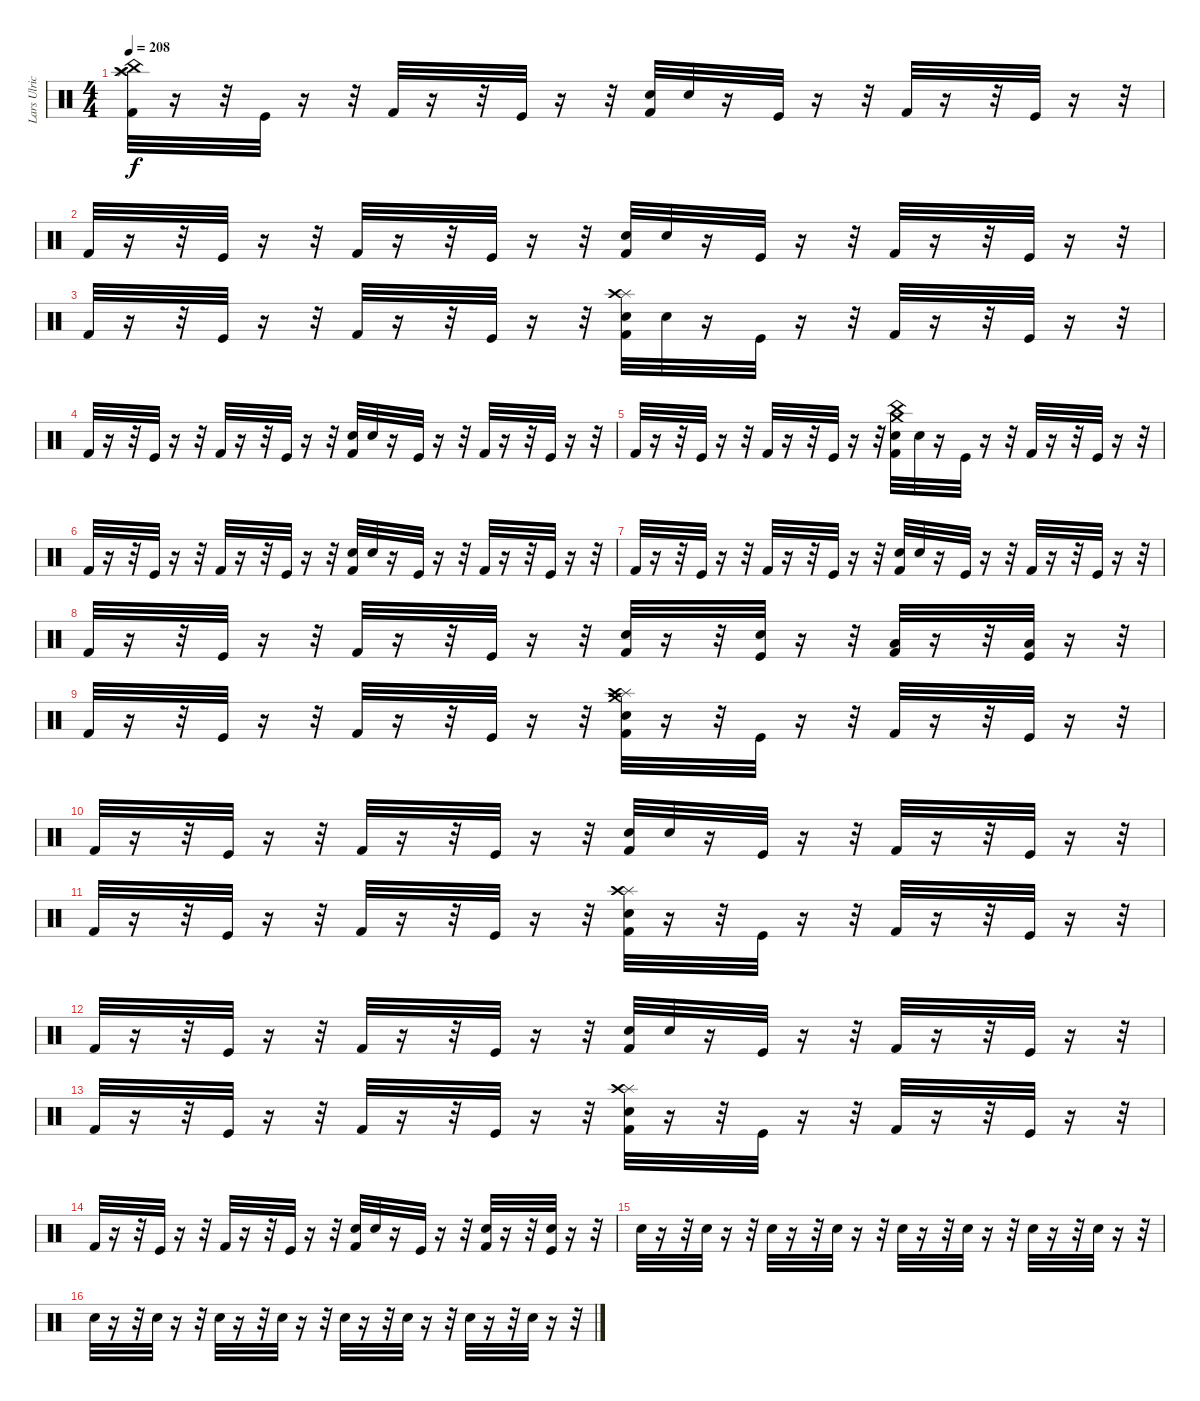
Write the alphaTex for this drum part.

\track ("Lars Ulrich (Drums)" "Lars Ulric") {instrument percussion}
\staff {score}
\articulation defaults
\ts (4 4)
\tempo 208
\clef neutral
\ks c
("China (hit)" "Crash high (hit)" "Splash (hit)" "Kick (hit) 2").32{dy f} r.16 r.32 "Kick (hit)".32 r.16 r.32 "Kick (hit) 2".32 r.16 r.32 "Kick (hit)".32 r.16 r.32 ("Snare (hit) 2" "Kick (hit) 2").32 "Snare (hit) 2".32 r.16 "Kick (hit)".32 r.16 r.32 "Kick (hit) 2".32 r.16 r.32 "Kick (hit)".32 r.16 r.32 |
"Kick (hit) 2".32 r.16 r.32 "Kick (hit)".32 r.16 r.32 "Kick (hit) 2".32 r.16 r.32 "Kick (hit)".32 r.16 r.32 ("Snare (hit) 2" "Kick (hit) 2").32 "Snare (hit) 2".32 r.16 "Kick (hit)".32 r.16 r.32 "Kick (hit) 2".32 r.16 r.32 "Kick (hit)".32 r.16 r.32 |
"Kick (hit) 2".32 r.16 r.32 "Kick (hit)".32 r.16 r.32 "Kick (hit) 2".32 r.16 r.32 "Kick (hit)".32 r.16 r.32 ("Splash (hit)" "Crash high (hit)" "Snare (hit) 2" "Kick (hit) 2").32 "Snare (hit) 2".32 r.16 "Kick (hit)".32 r.16 r.32 "Kick (hit) 2".32 r.16 r.32 "Kick (hit)".32 r.16 r.32 |
"Kick (hit) 2".32 r.16 r.32 "Kick (hit)".32 r.16 r.32 "Kick (hit) 2".32 r.16 r.32 "Kick (hit)".32 r.16 r.32 ("Snare (hit) 2" "Kick (hit) 2").32 "Snare (hit) 2".32 r.16 "Kick (hit)".32 r.16 r.32 "Kick (hit) 2".32 r.16 r.32 "Kick (hit)".32 r.16 r.32 |
"Kick (hit) 2".32 r.16 r.32 "Kick (hit)".32 r.16 r.32 "Kick (hit) 2".32 r.16 r.32 "Kick (hit)".32 r.16 r.32 ("China (hit)" "Crash medium (hit)" "Snare (hit) 2" "Kick (hit) 2").32 "Snare (hit) 2".32 r.16 "Kick (hit)".32 r.16 r.32 "Kick (hit) 2".32 r.16 r.32 "Kick (hit)".32 r.16 r.32 |
"Kick (hit) 2".32 r.16 r.32 "Kick (hit)".32 r.16 r.32 "Kick (hit) 2".32 r.16 r.32 "Kick (hit)".32 r.16 r.32 ("Snare (hit) 2" "Kick (hit) 2").32 "Snare (hit) 2".32 r.16 "Kick (hit)".32 r.16 r.32 "Kick (hit) 2".32 r.16 r.32 "Kick (hit)".32 r.16 r.32 |
"Kick (hit) 2".32 r.16 r.32 "Kick (hit)".32 r.16 r.32 "Kick (hit) 2".32 r.16 r.32 "Kick (hit)".32 r.16 r.32 ("Snare (hit) 2" "Kick (hit) 2").32 "Snare (hit) 2".32 r.16 "Kick (hit)".32 r.16 r.32 "Kick (hit) 2".32 r.16 r.32 "Kick (hit)".32 r.16 r.32 |
"Kick (hit) 2".32 r.16 r.32 "Kick (hit)".32 r.16 r.32 "Kick (hit) 2".32 r.16 r.32 "Kick (hit)".32 r.16 r.32 ("Snare (hit) 2" "Kick (hit) 2").32 r.16 r.32 ("Snare (hit) 2" "Kick (hit)").32 r.16 r.32 ("Low Tom (hit)" "Kick (hit) 2").32 r.16 r.32 ("Low Floor Tom (hit)" "Kick (hit)").32 r.16 r.32 |
"Kick (hit) 2".32 r.16 r.32 "Kick (hit)".32 r.16 r.32 "Kick (hit) 2".32 r.16 r.32 "Kick (hit)".32 r.16 r.32 ("Crash medium (hit)" "Splash (hit)" "Crash high (hit)" "Snare (hit) 2" "Kick (hit) 2").32 r.16 r.32 "Kick (hit)".32 r.16 r.32 "Kick (hit) 2".32 r.16 r.32 "Kick (hit)".32 r.16 r.32 |
"Kick (hit) 2".32 r.16 r.32 "Kick (hit)".32 r.16 r.32 "Kick (hit) 2".32 r.16 r.32 "Kick (hit)".32 r.16 r.32 ("Snare (hit) 2" "Kick (hit) 2").32 "Snare (hit) 2".32 r.16 "Kick (hit)".32 r.16 r.32 "Kick (hit) 2".32 r.16 r.32 "Kick (hit)".32 r.16 r.32 |
"Kick (hit) 2".32 r.16 r.32 "Kick (hit)".32 r.16 r.32 "Kick (hit) 2".32 r.16 r.32 "Kick (hit)".32 r.16 r.32 ("Splash (hit)" "Crash high (hit)" "Snare (hit) 2" "Kick (hit) 2").32 r.16 r.32 "Kick (hit)".32 r.16 r.32 "Kick (hit) 2".32 r.16 r.32 "Kick (hit)".32 r.16 r.32 |
"Kick (hit) 2".32 r.16 r.32 "Kick (hit)".32 r.16 r.32 "Kick (hit) 2".32 r.16 r.32 "Kick (hit)".32 r.16 r.32 ("Snare (hit) 2" "Kick (hit) 2").32 "Snare (hit) 2".32 r.16 "Kick (hit)".32 r.16 r.32 "Kick (hit) 2".32 r.16 r.32 "Kick (hit)".32 r.16 r.32 |
"Kick (hit) 2".32 r.16 r.32 "Kick (hit)".32 r.16 r.32 "Kick (hit) 2".32 r.16 r.32 "Kick (hit)".32 r.16 r.32 ("Splash (hit)" "Crash high (hit)" "Snare (hit) 2" "Kick (hit) 2").32 r.16 r.32 "Kick (hit)".32 r.16 r.32 "Kick (hit) 2".32 r.16 r.32 "Kick (hit)".32 r.16 r.32 |
"Kick (hit) 2".32 r.16 r.32 "Kick (hit)".32 r.16 r.32 "Kick (hit) 2".32 r.16 r.32 "Kick (hit)".32 r.16 r.32 ("Snare (hit) 2" "Kick (hit) 2").32 "Snare (hit) 2".32 r.16 "Kick (hit)".32 r.16 r.32 ("Snare (hit) 2" "Kick (hit) 2").32 r.16 r.32 ("Snare (hit) 2" "Kick (hit)").32 r.16 r.32 |
"Snare (hit) 2".32 r.16 r.32 "Snare (hit) 2".32 r.16 r.32 "Snare (hit) 2".32 r.16 r.32 "Snare (hit) 2".32 r.16 r.32 "Snare (hit) 2".32 r.16 r.32 "Snare (hit) 2".32 r.16 r.32 "Snare (hit) 2".32 r.16 r.32 "Snare (hit) 2".32 r.16 r.32 |
"Snare (hit) 2".32 r.16 r.32 "Snare (hit) 2".32 r.16 r.32 "Snare (hit) 2".32 r.16 r.32 "Snare (hit) 2".32 r.16 r.32 "Snare (hit) 2".32 r.16 r.32 "Snare (hit) 2".32 r.16 r.32 "Snare (hit) 2".32 r.16 r.32 "Snare (hit) 2".32 r.16 r.32
